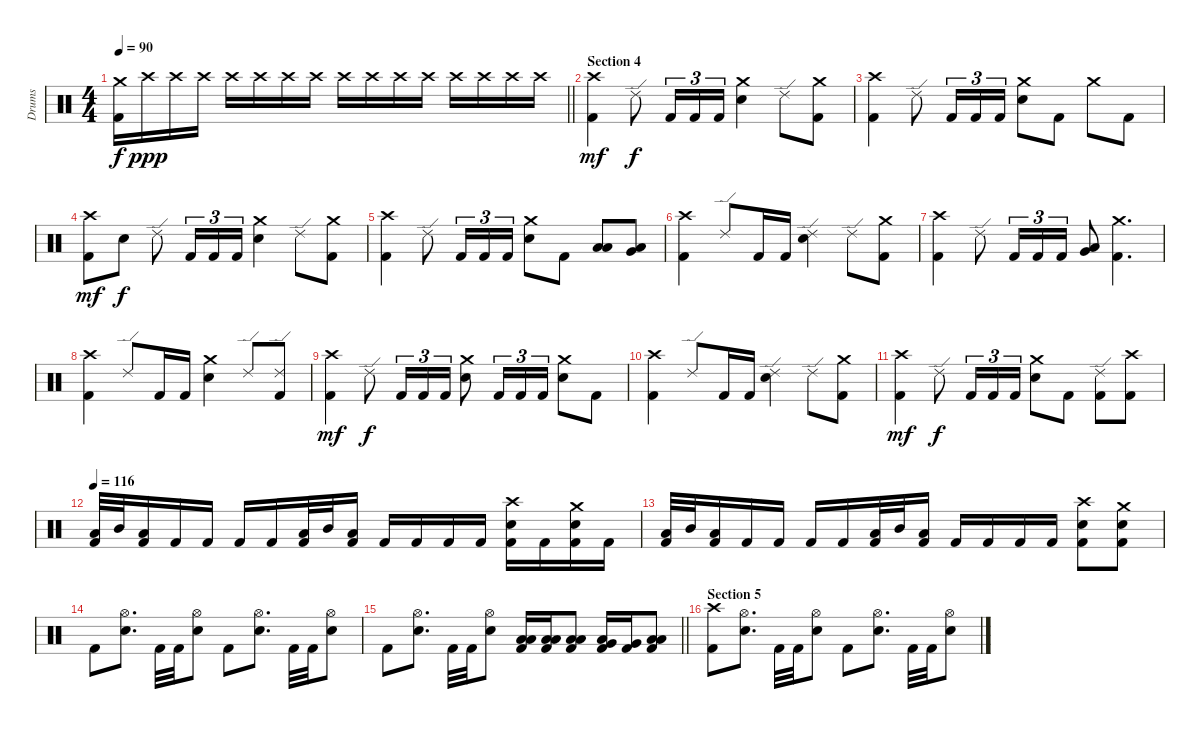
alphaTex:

\track ("Drums" "Drums") {instrument percussion}
\staff {score}
\articulation defaults
\ts (4 4)
\tempo 90
\clef neutral
\barLineRight lightlight
\ks c
("Crash medium (hit)" "Kick (hit) 2").16{dy f} "Crash high (hit)".16{dy ppp} "Crash high (hit)".16 "Crash high (hit)".16 "Crash high (hit)".16 "Crash high (hit)".16 "Crash high (hit)".16 "Crash high (hit)".16 "Crash high (hit)".16 "Crash high (hit)".16 "Crash high (hit)".16 "Crash high (hit)".16 "Crash high (hit)".16 "Crash high (hit)".16 "Crash high (hit)".16 "Crash high (hit)".16 |
\section ("" "Section 4")
("Crash high (hit)" "Kick (hit) 2").4{dy mf} "Ride (edge) 2".8{dy f} "Kick (hit) 2".16{tu (3 2)} "Kick (hit) 2".16{tu (3 2)} "Kick (hit) 2".16{tu (3 2)} ("Crash medium (hit)" "Electric Snare (hit)").4 "Ride (edge) 2".8 ("Crash medium (hit)" "Kick (hit) 2").8 |
("Crash high (hit)" "Kick (hit) 2").4 "Ride (edge) 2".8 "Kick (hit) 2".16{tu (3 2)} "Kick (hit) 2".16{tu (3 2)} "Kick (hit) 2".16{tu (3 2)} ("Crash medium (hit)" "Electric Snare (hit)").8 "Kick (hit) 2".8 "Crash medium (hit)".8 "Kick (hit) 2".8 |
("Crash high (hit)" "Kick (hit) 2").8{dy mf} "Electric Snare (hit)".8{dy f} "Ride (edge) 2".8 "Kick (hit) 2".16{tu (3 2)} "Kick (hit) 2".16{tu (3 2)} "Kick (hit) 2".16{tu (3 2)} ("Crash medium (hit)" "Electric Snare (hit)").4 "Ride (edge) 2".8 ("Crash medium (hit)" "Kick (hit) 2").8 |
("Crash high (hit)" "Kick (hit) 2").4 "Ride (edge) 2".8 "Kick (hit) 2".16{tu (3 2)} "Kick (hit) 2".16{tu (3 2)} "Kick (hit) 2".16{tu (3 2)} ("Crash medium (hit)" "Electric Snare (hit)").8 "Kick (hit) 2".8 ("Low Tom (hit)" "Low Floor Tom (hit)").8 ("Very Low Tom (hit)" "Low Floor Tom (hit)").8 |
("Crash high (hit)" "Kick (hit) 2").4 "Ride (edge) 2".8 "Kick (hit) 2".16 "Kick (hit) 2".16 ("Ride (edge) 2" "Electric Snare (hit)").4 "Ride (edge) 2".8 ("Crash medium (hit)" "Kick (hit) 2").8 |
("Crash high (hit)" "Kick (hit) 2").4 "Ride (edge) 2".8 "Kick (hit) 2".16{tu (3 2)} "Kick (hit) 2".16{tu (3 2)} "Kick (hit) 2".16{tu (3 2)} ("Very Low Tom (hit)" "Low Floor Tom (hit)").8 ("Crash medium (hit)" "Kick (hit) 2").4{d} |
("Crash high (hit)" "Kick (hit) 2").4 "Ride (edge) 2".8 "Kick (hit) 2".16 "Kick (hit) 2".16 ("Crash medium (hit)" "Electric Snare (hit)").4 "Ride (edge) 2".8 ("Ride (edge) 2" "Kick (hit) 2").8 |
("Crash high (hit)" "Kick (hit) 2").4{dy mf} "Ride (edge) 2".8{dy f} "Kick (hit) 2".16{tu (3 2)} "Kick (hit) 2".16{tu (3 2)} "Kick (hit) 2".16{tu (3 2)} ("Crash medium (hit)" "Electric Snare (hit)").8 "Kick (hit) 2".16{tu (3 2)} "Kick (hit) 2".16{tu (3 2)} "Kick (hit) 2".16{tu (3 2)} ("Crash medium (hit)" "Electric Snare (hit)").8 "Kick (hit) 2".8 |
("Crash high (hit)" "Kick (hit) 2").4 "Ride (edge) 2".8 "Kick (hit) 2".16 "Kick (hit) 2".16 ("Ride (edge) 2" "Electric Snare (hit)").4 "Ride (edge) 2".8 ("Crash medium (hit)" "Kick (hit) 2").8 |
("Crash high (hit)" "Kick (hit) 2").4{dy mf} "Ride (edge) 2".8{dy f} "Kick (hit) 2".16{tu (3 2)} "Kick (hit) 2".16{tu (3 2)} "Kick (hit) 2".16{tu (3 2)} ("Crash medium (hit)" "Electric Snare (hit)").8 "Kick (hit) 2".8 ("Ride (edge) 2" "Kick (hit) 2").8 ("Crash high (hit)" "Kick (hit) 2").8 |
\tempo 116
("Low Tom (hit)" "Kick (hit) 2").32 "Mid Tom (hit)".32 ("Low Tom (hit)" "Kick (hit) 2").16 "Kick (hit) 2".16 "Kick (hit) 2".16 "Kick (hit) 2".16 "Kick (hit) 2".16 ("Low Tom (hit)" "Kick (hit) 2").32 "Mid Tom (hit)".32 ("Low Tom (hit)" "Kick (hit) 2").16 "Kick (hit) 2".16 "Kick (hit) 2".16 "Kick (hit) 2".16 "Kick (hit) 2".16 ("Crash high (hit)" "Electric Snare (hit)" "Kick (hit) 2").16 "Kick (hit) 2".16 ("Crash medium (hit)" "Electric Snare (hit)" "Kick (hit) 2").16 "Kick (hit) 2".16 |
("Low Tom (hit)" "Kick (hit) 2").32 "Mid Tom (hit)".32 ("Low Tom (hit)" "Kick (hit) 2").16 "Kick (hit) 2".16 "Kick (hit) 2".16 "Kick (hit) 2".16 "Kick (hit) 2".16 ("Low Tom (hit)" "Kick (hit) 2").32 "Mid Tom (hit)".32 ("Low Tom (hit)" "Kick (hit) 2").16 "Kick (hit) 2".16 "Kick (hit) 2".16 "Kick (hit) 2".16 "Kick (hit) 2".16 ("Crash high (hit)" "Electric Snare (hit)" "Kick (hit) 2").8 ("Crash medium (hit)" "Electric Snare (hit)" "Kick (hit) 2").8 |
"Kick (hit) 2".8 ("Hi-Hat (open)" "Electric Snare (hit)").8{d} "Kick (hit) 2".32 "Kick (hit) 2".32 ("Hi-Hat (open)" "Electric Snare (hit)").8 "Kick (hit) 2".8 ("Hi-Hat (open)" "Electric Snare (hit)").8{d} "Kick (hit) 2".32 "Kick (hit) 2".32 ("Hi-Hat (open)" "Electric Snare (hit)").8 |
\barLineRight lightlight "Kick (hit) 2".8
("Hi-Hat (open)" "Electric Snare (hit)").8{d} "Kick (hit) 2".32 "Kick (hit) 2".32 ("Hi-Hat (open)" "Electric Snare (hit)").8 ("Low Tom (hit)" "Low Floor Tom (hit)" "Kick (hit) 2").16 ("Low Tom (hit)" "Low Floor Tom (hit)" "Kick (hit) 2").16 ("Low Tom (hit)" "Low Floor Tom (hit)" "Kick (hit) 2").8 ("Very Low Tom (hit)" "Low Floor Tom (hit)" "Kick (hit) 2").16 ("Very Low Tom (hit)" "Kick (hit) 2").16 ("Low Tom (hit)" "Low Floor Tom (hit)" "Kick (hit) 2").8 |
\section ("" "Section 5")
("Crash high (hit)" "Kick (hit) 2").8 ("Hi-Hat (open)" "Electric Snare (hit)").8{d} "Kick (hit) 2".32 "Kick (hit) 2".32 ("Hi-Hat (open)" "Electric Snare (hit)").8 "Kick (hit) 2".8 ("Hi-Hat (open)" "Electric Snare (hit)").8{d} "Kick (hit) 2".32 "Kick (hit) 2".32 ("Hi-Hat (open)" "Electric Snare (hit)").8
